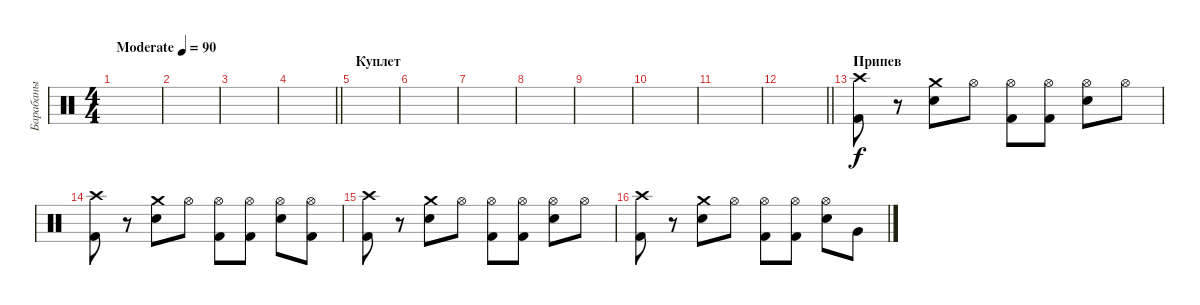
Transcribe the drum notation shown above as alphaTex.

\track ("Барабаны" "Барабаны") {instrument percussion}
\staff {score}
\articulation defaults
\ts (4 4)
\tempo (90 "Moderate")
\clef neutral
\ks c
|
|
|
\barLineRight lightlight
|
\section ("" "Куплет")
|
|
|
|
|
|
|
\barLineRight lightlight
|
\section ("" "Припев")
("Kick (hit) 2" "Crash high (hit)").8 r.8 ("Snare (hit) 2" "Crash medium (hit)").8 "Hi-Hat (open)".8 ("Hi-Hat (open)" "Kick (hit) 2").8 ("Hi-Hat (open)" "Kick (hit) 2").8 ("Hi-Hat (open)" "Snare (hit) 2").8 "Hi-Hat (open)".8 |
("Kick (hit) 2" "Crash high (hit)").8 r.8 ("Snare (hit) 2" "Crash medium (hit)").8 "Hi-Hat (open)".8 ("Hi-Hat (open)" "Kick (hit) 2").8 ("Hi-Hat (open)" "Kick (hit) 2").8 ("Hi-Hat (open)" "Snare (hit) 2").8 ("Hi-Hat (open)" "Kick (hit) 2").8 |
("Kick (hit) 2" "Crash high (hit)").8 r.8 ("Snare (hit) 2" "Crash medium (hit)").8 "Hi-Hat (open)".8 ("Hi-Hat (open)" "Kick (hit) 2").8 ("Hi-Hat (open)" "Kick (hit) 2").8 ("Hi-Hat (open)" "Snare (hit) 2").8 "Hi-Hat (open)".8 |
("Kick (hit) 2" "Crash high (hit)").8 r.8 ("Snare (hit) 2" "Crash medium (hit)").8 "Hi-Hat (open)".8 ("Hi-Hat (open)" "Kick (hit) 2").8 ("Hi-Hat (open)" "Kick (hit) 2").8 ("Hi-Hat (open)" "Snare (hit) 2").8 "Very Low Tom (hit)".8
